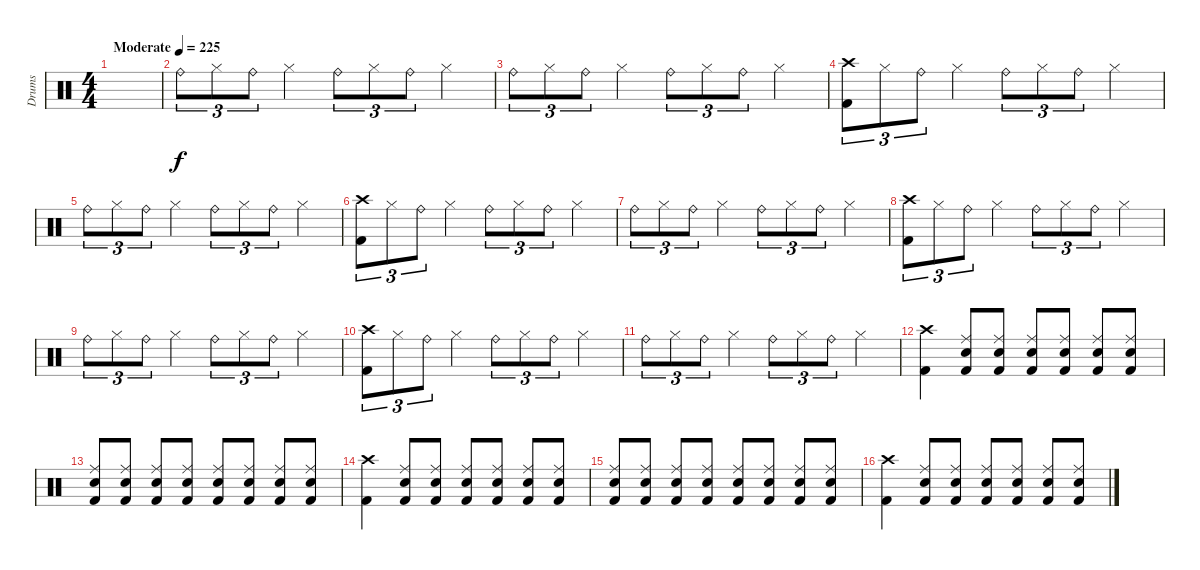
\track ("Drums" "Drums") {instrument percussion}
\staff {score}
\articulation defaults
\ts (4 4)
\tempo (225 "Moderate")
\clef neutral
\ks c
|
"Ride (bell)".8{tu (3 2)} "Hi-Hat (closed)".8{tu (3 2)} "Ride (bell)".8{tu (3 2)} "Hi-Hat (closed)".4 "Ride (bell)".8{tu (3 2)} "Hi-Hat (closed)".8{tu (3 2)} "Ride (bell)".8{tu (3 2)} "Hi-Hat (closed)".4 |
"Ride (bell)".8{tu (3 2)} "Hi-Hat (closed)".8{tu (3 2)} "Ride (bell)".8{tu (3 2)} "Hi-Hat (closed)".4 "Ride (bell)".8{tu (3 2)} "Hi-Hat (closed)".8{tu (3 2)} "Ride (bell)".8{tu (3 2)} "Hi-Hat (closed)".4 |
("Crash high (hit)" "Kick (hit) 2").8{tu (3 2)} "Hi-Hat (closed)".8{tu (3 2)} "Ride (bell)".8{tu (3 2)} "Hi-Hat (closed)".4 "Ride (bell)".8{tu (3 2)} "Hi-Hat (closed)".8{tu (3 2)} "Ride (bell)".8{tu (3 2)} "Hi-Hat (closed)".4 |
"Ride (bell)".8{tu (3 2)} "Hi-Hat (closed)".8{tu (3 2)} "Ride (bell)".8{tu (3 2)} "Hi-Hat (closed)".4 "Ride (bell)".8{tu (3 2)} "Hi-Hat (closed)".8{tu (3 2)} "Ride (bell)".8{tu (3 2)} "Hi-Hat (closed)".4 |
("Crash high (hit)" "Kick (hit) 2").8{tu (3 2)} "Hi-Hat (closed)".8{tu (3 2)} "Ride (bell)".8{tu (3 2)} "Hi-Hat (closed)".4 "Ride (bell)".8{tu (3 2)} "Hi-Hat (closed)".8{tu (3 2)} "Ride (bell)".8{tu (3 2)} "Hi-Hat (closed)".4 |
"Ride (bell)".8{tu (3 2)} "Hi-Hat (closed)".8{tu (3 2)} "Ride (bell)".8{tu (3 2)} "Hi-Hat (closed)".4 "Ride (bell)".8{tu (3 2)} "Hi-Hat (closed)".8{tu (3 2)} "Ride (bell)".8{tu (3 2)} "Hi-Hat (closed)".4 |
("Crash high (hit)" "Kick (hit) 2").8{tu (3 2)} "Hi-Hat (closed)".8{tu (3 2)} "Ride (bell)".8{tu (3 2)} "Hi-Hat (closed)".4 "Ride (bell)".8{tu (3 2)} "Hi-Hat (closed)".8{tu (3 2)} "Ride (bell)".8{tu (3 2)} "Hi-Hat (closed)".4 |
"Ride (bell)".8{tu (3 2)} "Hi-Hat (closed)".8{tu (3 2)} "Ride (bell)".8{tu (3 2)} "Hi-Hat (closed)".4 "Ride (bell)".8{tu (3 2)} "Hi-Hat (closed)".8{tu (3 2)} "Ride (bell)".8{tu (3 2)} "Hi-Hat (closed)".4 |
("Crash high (hit)" "Kick (hit) 2").8{tu (3 2)} "Hi-Hat (closed)".8{tu (3 2)} "Ride (bell)".8{tu (3 2)} "Hi-Hat (closed)".4 "Ride (bell)".8{tu (3 2)} "Hi-Hat (closed)".8{tu (3 2)} "Ride (bell)".8{tu (3 2)} "Hi-Hat (closed)".4 |
"Ride (bell)".8{tu (3 2)} "Hi-Hat (closed)".8{tu (3 2)} "Ride (bell)".8{tu (3 2)} "Hi-Hat (closed)".4 "Ride (bell)".8{tu (3 2)} "Hi-Hat (closed)".8{tu (3 2)} "Ride (bell)".8{tu (3 2)} "Hi-Hat (closed)".4 |
("Crash high (hit)" "Kick (hit) 2").4 ("Ride (middle)" "Electric Snare (hit)" "Kick (hit) 2").8 ("Ride (middle)" "Electric Snare (hit)" "Kick (hit) 2").8 ("Ride (middle)" "Electric Snare (hit)" "Kick (hit) 2").8 ("Ride (middle)" "Electric Snare (hit)" "Kick (hit) 2").8 ("Ride (middle)" "Electric Snare (hit)" "Kick (hit) 2").8 ("Ride (middle)" "Electric Snare (hit)" "Kick (hit) 2").8 |
("Ride (middle)" "Electric Snare (hit)" "Kick (hit) 2").8 ("Ride (middle)" "Electric Snare (hit)" "Kick (hit) 2").8 ("Ride (middle)" "Electric Snare (hit)" "Kick (hit) 2").8 ("Ride (middle)" "Electric Snare (hit)" "Kick (hit) 2").8 ("Ride (middle)" "Electric Snare (hit)" "Kick (hit) 2").8 ("Ride (middle)" "Electric Snare (hit)" "Kick (hit) 2").8 ("Ride (middle)" "Electric Snare (hit)" "Kick (hit) 2").8 ("Ride (middle)" "Electric Snare (hit)" "Kick (hit) 2").8 |
("Crash high (hit)" "Kick (hit) 2").4 ("Ride (middle)" "Electric Snare (hit)" "Kick (hit) 2").8 ("Ride (middle)" "Electric Snare (hit)" "Kick (hit) 2").8 ("Ride (middle)" "Electric Snare (hit)" "Kick (hit) 2").8 ("Ride (middle)" "Electric Snare (hit)" "Kick (hit) 2").8 ("Ride (middle)" "Electric Snare (hit)" "Kick (hit) 2").8 ("Ride (middle)" "Electric Snare (hit)" "Kick (hit) 2").8 |
("Ride (middle)" "Electric Snare (hit)" "Kick (hit) 2").8 ("Ride (middle)" "Electric Snare (hit)" "Kick (hit) 2").8 ("Ride (middle)" "Electric Snare (hit)" "Kick (hit) 2").8 ("Ride (middle)" "Electric Snare (hit)" "Kick (hit) 2").8 ("Ride (middle)" "Electric Snare (hit)" "Kick (hit) 2").8 ("Ride (middle)" "Electric Snare (hit)" "Kick (hit) 2").8 ("Ride (middle)" "Electric Snare (hit)" "Kick (hit) 2").8 ("Ride (middle)" "Electric Snare (hit)" "Kick (hit) 2").8 |
("Crash high (hit)" "Kick (hit) 2").4 ("Ride (middle)" "Electric Snare (hit)" "Kick (hit) 2").8 ("Ride (middle)" "Electric Snare (hit)" "Kick (hit) 2").8 ("Ride (middle)" "Electric Snare (hit)" "Kick (hit) 2").8 ("Ride (middle)" "Electric Snare (hit)" "Kick (hit) 2").8 ("Ride (middle)" "Electric Snare (hit)" "Kick (hit) 2").8 ("Ride (middle)" "Electric Snare (hit)" "Kick (hit) 2").8
